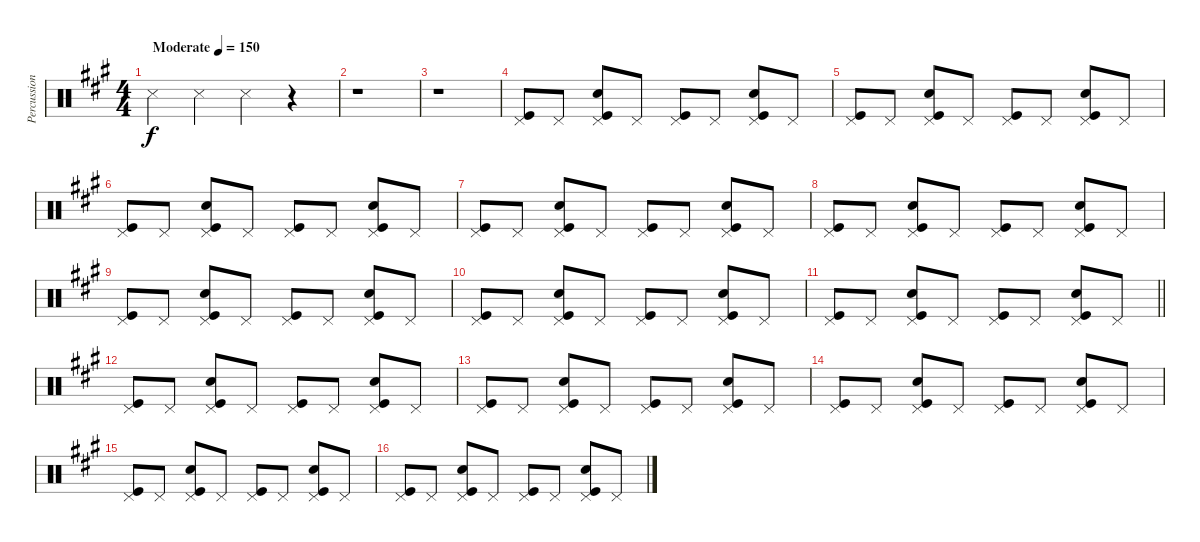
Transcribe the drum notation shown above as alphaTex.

\track ("Percussions" "Percussion") {instrument percussion}
\staff {score}
\articulation defaults
\ts (4 4)
\tempo (150 "Moderate")
\clef neutral
\ks a "Snare (side stick) 3".4{dy f} "Snare (side stick) 3".4 "Snare (side stick) 3".4
r.4 |
r.1 |
r.1 |
("Kick (hit)" "Pedal Hi-Hat (hit)").8 "Pedal Hi-Hat (hit)".8 ("Snare (hit) 2" "Kick (hit)" "Pedal Hi-Hat (hit)").8 "Pedal Hi-Hat (hit)".8 ("Kick (hit)" "Pedal Hi-Hat (hit)").8 "Pedal Hi-Hat (hit)".8 ("Snare (hit) 2" "Kick (hit)" "Pedal Hi-Hat (hit)").8 "Pedal Hi-Hat (hit)".8 |
("Kick (hit)" "Pedal Hi-Hat (hit)").8 "Pedal Hi-Hat (hit)".8 ("Snare (hit) 2" "Kick (hit)" "Pedal Hi-Hat (hit)").8 "Pedal Hi-Hat (hit)".8 ("Kick (hit)" "Pedal Hi-Hat (hit)").8 "Pedal Hi-Hat (hit)".8 ("Snare (hit) 2" "Kick (hit)" "Pedal Hi-Hat (hit)").8 "Pedal Hi-Hat (hit)".8 |
("Kick (hit)" "Pedal Hi-Hat (hit)").8 "Pedal Hi-Hat (hit)".8 ("Snare (hit) 2" "Kick (hit)" "Pedal Hi-Hat (hit)").8 "Pedal Hi-Hat (hit)".8 ("Kick (hit)" "Pedal Hi-Hat (hit)").8 "Pedal Hi-Hat (hit)".8 ("Snare (hit) 2" "Kick (hit)" "Pedal Hi-Hat (hit)").8 "Pedal Hi-Hat (hit)".8 |
("Kick (hit)" "Pedal Hi-Hat (hit)").8 "Pedal Hi-Hat (hit)".8 ("Snare (hit) 2" "Kick (hit)" "Pedal Hi-Hat (hit)").8 "Pedal Hi-Hat (hit)".8 ("Kick (hit)" "Pedal Hi-Hat (hit)").8 "Pedal Hi-Hat (hit)".8 ("Snare (hit) 2" "Kick (hit)" "Pedal Hi-Hat (hit)").8 "Pedal Hi-Hat (hit)".8 |
("Kick (hit)" "Pedal Hi-Hat (hit)").8 "Pedal Hi-Hat (hit)".8 ("Snare (hit) 2" "Kick (hit)" "Pedal Hi-Hat (hit)").8 "Pedal Hi-Hat (hit)".8 ("Kick (hit)" "Pedal Hi-Hat (hit)").8 "Pedal Hi-Hat (hit)".8 ("Snare (hit) 2" "Kick (hit)" "Pedal Hi-Hat (hit)").8 "Pedal Hi-Hat (hit)".8 |
("Kick (hit)" "Pedal Hi-Hat (hit)").8 "Pedal Hi-Hat (hit)".8 ("Snare (hit) 2" "Kick (hit)" "Pedal Hi-Hat (hit)").8 "Pedal Hi-Hat (hit)".8 ("Kick (hit)" "Pedal Hi-Hat (hit)").8 "Pedal Hi-Hat (hit)".8 ("Snare (hit) 2" "Kick (hit)" "Pedal Hi-Hat (hit)").8 "Pedal Hi-Hat (hit)".8 |
("Kick (hit)" "Pedal Hi-Hat (hit)").8 "Pedal Hi-Hat (hit)".8 ("Snare (hit) 2" "Kick (hit)" "Pedal Hi-Hat (hit)").8 "Pedal Hi-Hat (hit)".8 ("Kick (hit)" "Pedal Hi-Hat (hit)").8 "Pedal Hi-Hat (hit)".8 ("Snare (hit) 2" "Kick (hit)" "Pedal Hi-Hat (hit)").8 "Pedal Hi-Hat (hit)".8 |
\barLineRight lightlight
("Kick (hit)" "Pedal Hi-Hat (hit)").8 "Pedal Hi-Hat (hit)".8 ("Snare (hit) 2" "Kick (hit)" "Pedal Hi-Hat (hit)").8 "Pedal Hi-Hat (hit)".8 ("Kick (hit)" "Pedal Hi-Hat (hit)").8 "Pedal Hi-Hat (hit)".8 ("Snare (hit) 2" "Kick (hit)" "Pedal Hi-Hat (hit)").8 "Pedal Hi-Hat (hit)".8 |
("Kick (hit)" "Pedal Hi-Hat (hit)").8 "Pedal Hi-Hat (hit)".8 ("Snare (hit) 2" "Kick (hit)" "Pedal Hi-Hat (hit)").8 "Pedal Hi-Hat (hit)".8 ("Kick (hit)" "Pedal Hi-Hat (hit)").8 "Pedal Hi-Hat (hit)".8 ("Snare (hit) 2" "Kick (hit)" "Pedal Hi-Hat (hit)").8 "Pedal Hi-Hat (hit)".8 |
("Kick (hit)" "Pedal Hi-Hat (hit)").8 "Pedal Hi-Hat (hit)".8 ("Snare (hit) 2" "Kick (hit)" "Pedal Hi-Hat (hit)").8 "Pedal Hi-Hat (hit)".8 ("Kick (hit)" "Pedal Hi-Hat (hit)").8 "Pedal Hi-Hat (hit)".8 ("Snare (hit) 2" "Kick (hit)" "Pedal Hi-Hat (hit)").8 "Pedal Hi-Hat (hit)".8 |
("Kick (hit)" "Pedal Hi-Hat (hit)").8 "Pedal Hi-Hat (hit)".8 ("Snare (hit) 2" "Kick (hit)" "Pedal Hi-Hat (hit)").8 "Pedal Hi-Hat (hit)".8 ("Kick (hit)" "Pedal Hi-Hat (hit)").8 "Pedal Hi-Hat (hit)".8 ("Snare (hit) 2" "Kick (hit)" "Pedal Hi-Hat (hit)").8 "Pedal Hi-Hat (hit)".8 |
("Kick (hit)" "Pedal Hi-Hat (hit)").8 "Pedal Hi-Hat (hit)".8 ("Snare (hit) 2" "Kick (hit)" "Pedal Hi-Hat (hit)").8 "Pedal Hi-Hat (hit)".8 ("Kick (hit)" "Pedal Hi-Hat (hit)").8 "Pedal Hi-Hat (hit)".8 ("Snare (hit) 2" "Kick (hit)" "Pedal Hi-Hat (hit)").8 "Pedal Hi-Hat (hit)".8 |
("Kick (hit)" "Pedal Hi-Hat (hit)").8 "Pedal Hi-Hat (hit)".8 ("Snare (hit) 2" "Kick (hit)" "Pedal Hi-Hat (hit)").8 "Pedal Hi-Hat (hit)".8 ("Kick (hit)" "Pedal Hi-Hat (hit)").8 "Pedal Hi-Hat (hit)".8 ("Snare (hit) 2" "Kick (hit)" "Pedal Hi-Hat (hit)").8 "Pedal Hi-Hat (hit)".8
